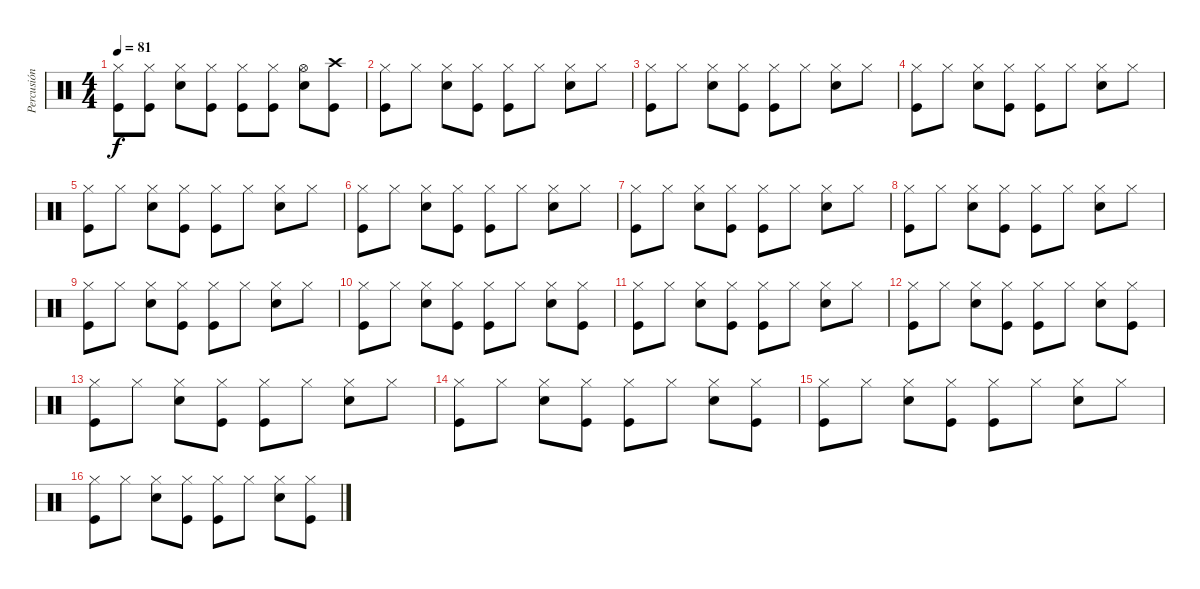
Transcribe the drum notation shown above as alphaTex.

\track ("Percusión" "Percusión") {instrument percussion}
\staff {score}
\articulation defaults
\ts (4 4)
\tempo 81
\clef neutral
\ks c
("Hi-Hat (closed)" "Kick (hit)").8{dy f} ("Hi-Hat (closed)" "Kick (hit)").8 ("Hi-Hat (closed)" "Electric Snare (hit)").8 ("Hi-Hat (closed)" "Kick (hit)").8 ("Hi-Hat (closed)" "Kick (hit)").8 ("Hi-Hat (closed)" "Kick (hit)").8 ("Hi-Hat (open)" "Electric Snare (hit)").8 ("Crash high (hit)" "Kick (hit)").8 |
("Hi-Hat (closed)" "Kick (hit)").8 "Hi-Hat (closed)".8 ("Hi-Hat (closed)" "Electric Snare (hit)").8 ("Hi-Hat (closed)" "Kick (hit)").8 ("Hi-Hat (closed)" "Kick (hit)").8 "Hi-Hat (closed)".8 ("Hi-Hat (closed)" "Electric Snare (hit)").8 "Hi-Hat (closed)".8 |
("Hi-Hat (closed)" "Kick (hit)").8 "Hi-Hat (closed)".8 ("Hi-Hat (closed)" "Electric Snare (hit)").8 ("Hi-Hat (closed)" "Kick (hit)").8 ("Hi-Hat (closed)" "Kick (hit)").8 "Hi-Hat (closed)".8 ("Hi-Hat (closed)" "Electric Snare (hit)").8 "Hi-Hat (closed)".8 |
("Hi-Hat (closed)" "Kick (hit)").8 "Hi-Hat (closed)".8 ("Hi-Hat (closed)" "Electric Snare (hit)").8 ("Hi-Hat (closed)" "Kick (hit)").8 ("Hi-Hat (closed)" "Kick (hit)").8 "Hi-Hat (closed)".8 ("Hi-Hat (closed)" "Electric Snare (hit)").8 "Hi-Hat (closed)".8 |
("Hi-Hat (closed)" "Kick (hit)").8 "Hi-Hat (closed)".8 ("Hi-Hat (closed)" "Electric Snare (hit)").8 ("Hi-Hat (closed)" "Kick (hit)").8 ("Hi-Hat (closed)" "Kick (hit)").8 "Hi-Hat (closed)".8 ("Hi-Hat (closed)" "Electric Snare (hit)").8 "Hi-Hat (closed)".8 |
("Hi-Hat (closed)" "Kick (hit)").8 "Hi-Hat (closed)".8 ("Hi-Hat (closed)" "Electric Snare (hit)").8 ("Hi-Hat (closed)" "Kick (hit)").8 ("Hi-Hat (closed)" "Kick (hit)").8 "Hi-Hat (closed)".8 ("Hi-Hat (closed)" "Electric Snare (hit)").8 "Hi-Hat (closed)".8 |
("Hi-Hat (closed)" "Kick (hit)").8 "Hi-Hat (closed)".8 ("Hi-Hat (closed)" "Electric Snare (hit)").8 ("Hi-Hat (closed)" "Kick (hit)").8 ("Hi-Hat (closed)" "Kick (hit)").8 "Hi-Hat (closed)".8 ("Hi-Hat (closed)" "Electric Snare (hit)").8 "Hi-Hat (closed)".8 |
("Hi-Hat (closed)" "Kick (hit)").8 "Hi-Hat (closed)".8 ("Hi-Hat (closed)" "Electric Snare (hit)").8 ("Hi-Hat (closed)" "Kick (hit)").8 ("Hi-Hat (closed)" "Kick (hit)").8 "Hi-Hat (closed)".8 ("Hi-Hat (closed)" "Electric Snare (hit)").8 "Hi-Hat (closed)".8 |
("Hi-Hat (closed)" "Kick (hit)").8 "Hi-Hat (closed)".8 ("Hi-Hat (closed)" "Electric Snare (hit)").8 ("Hi-Hat (closed)" "Kick (hit)").8 ("Hi-Hat (closed)" "Kick (hit)").8 "Hi-Hat (closed)".8 ("Hi-Hat (closed)" "Electric Snare (hit)").8 "Hi-Hat (closed)".8 |
("Hi-Hat (closed)" "Kick (hit)").8 "Hi-Hat (closed)".8 ("Hi-Hat (closed)" "Electric Snare (hit)").8 ("Hi-Hat (closed)" "Kick (hit)").8 ("Hi-Hat (closed)" "Kick (hit)").8 "Hi-Hat (closed)".8 ("Hi-Hat (closed)" "Electric Snare (hit)").8 ("Hi-Hat (closed)" "Kick (hit)").8 |
("Hi-Hat (closed)" "Kick (hit)").8 "Hi-Hat (closed)".8 ("Hi-Hat (closed)" "Electric Snare (hit)").8 ("Hi-Hat (closed)" "Kick (hit)").8 ("Hi-Hat (closed)" "Kick (hit)").8 "Hi-Hat (closed)".8 ("Hi-Hat (closed)" "Electric Snare (hit)").8 "Hi-Hat (closed)".8 |
("Hi-Hat (closed)" "Kick (hit)").8 "Hi-Hat (closed)".8 ("Hi-Hat (closed)" "Electric Snare (hit)").8 ("Hi-Hat (closed)" "Kick (hit)").8 ("Hi-Hat (closed)" "Kick (hit)").8 "Hi-Hat (closed)".8 ("Hi-Hat (closed)" "Electric Snare (hit)").8 ("Hi-Hat (closed)" "Kick (hit)").8 |
("Hi-Hat (closed)" "Kick (hit)").8 "Hi-Hat (closed)".8 ("Hi-Hat (closed)" "Electric Snare (hit)").8 ("Hi-Hat (closed)" "Kick (hit)").8 ("Hi-Hat (closed)" "Kick (hit)").8 "Hi-Hat (closed)".8 ("Hi-Hat (closed)" "Electric Snare (hit)").8 "Hi-Hat (closed)".8 |
("Hi-Hat (closed)" "Kick (hit)").8 "Hi-Hat (closed)".8 ("Hi-Hat (closed)" "Electric Snare (hit)").8 ("Hi-Hat (closed)" "Kick (hit)").8 ("Hi-Hat (closed)" "Kick (hit)").8 "Hi-Hat (closed)".8 ("Hi-Hat (closed)" "Electric Snare (hit)").8 ("Hi-Hat (closed)" "Kick (hit)").8 |
("Hi-Hat (closed)" "Kick (hit)").8 "Hi-Hat (closed)".8 ("Hi-Hat (closed)" "Electric Snare (hit)").8 ("Hi-Hat (closed)" "Kick (hit)").8 ("Hi-Hat (closed)" "Kick (hit)").8 "Hi-Hat (closed)".8 ("Hi-Hat (closed)" "Electric Snare (hit)").8 "Hi-Hat (closed)".8 |
("Hi-Hat (closed)" "Kick (hit)").8 "Hi-Hat (closed)".8 ("Hi-Hat (closed)" "Electric Snare (hit)").8 ("Hi-Hat (closed)" "Kick (hit)").8 ("Hi-Hat (closed)" "Kick (hit)").8 "Hi-Hat (closed)".8 ("Hi-Hat (closed)" "Electric Snare (hit)").8 ("Hi-Hat (closed)" "Kick (hit)").8
